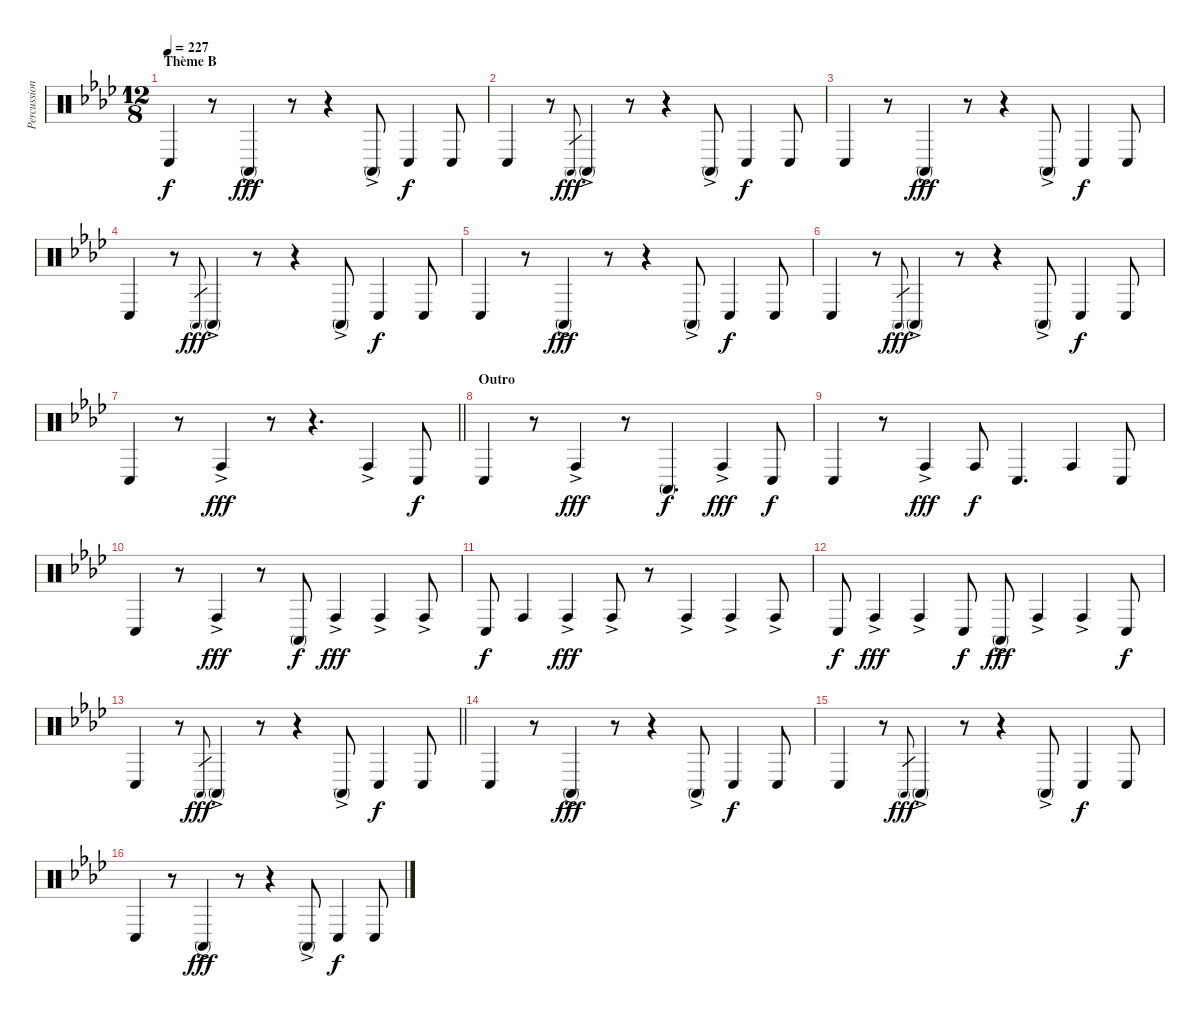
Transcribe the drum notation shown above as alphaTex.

\track ("Percussions" "Percussion") {instrument percussion}
\staff {score}
\articulation defaults
\ts (12 8)
\section ("" "Thème B")
\tempo 227
\clef neutral
\ks fminor "Conga low (hit)".4{dy f volume 13 balance 8}
r.8 "Conga high (mute)"{ac}.4{dy fff} r.8 r.4 "Conga high (mute)"{ac}.8 "Conga low (hit)".4{dy f} "Conga low (hit)".8 |
"Conga low (hit)".4 r.8 "Conga high (mute)".8{gr dy fff} "Conga high (mute)"{ac}.4 r.8 r.4 "Conga high (mute)"{ac}.8 "Conga low (hit)".4{dy f} "Conga low (hit)".8 |
"Conga low (hit)".4 r.8 "Conga high (mute)"{ac}.4{dy fff} r.8 r.4 "Conga high (mute)"{ac}.8 "Conga low (hit)".4{dy f} "Conga low (hit)".8 |
"Conga low (hit)".4 r.8 "Conga high (mute)".8{gr dy fff} "Conga high (mute)"{ac}.4 r.8 r.4 "Conga high (mute)"{ac}.8 "Conga low (hit)".4{dy f} "Conga low (hit)".8 |
"Conga low (hit)".4 r.8 "Conga high (mute)"{ac}.4{dy fff} r.8 r.4 "Conga high (mute)"{ac}.8 "Conga low (hit)".4{dy f} "Conga low (hit)".8 |
"Conga low (hit)".4 r.8 "Conga high (mute)".8{gr dy fff} "Conga high (mute)"{ac}.4 r.8 r.4 "Conga high (mute)"{ac}.8 "Conga low (hit)".4{dy f} "Conga low (hit)".8 |
\barLineRight lightlight "Conga low (hit)".4
r.8 "Conga high (hit)"{ac}.4{dy fff} r.8 r.4{d} "Conga high (hit)"{ac}.4 "Conga low (hit)".8{dy f} |
\section ("" "Outro")
"Conga low (hit)".4{volume 11 balance 8} r.8 "Conga high (hit)"{ac}.4{dy fff} r.8 "Conga high (mute)".4{d dy f} "Conga high (hit)"{ac}.4{dy fff} "Conga low (hit)".8{dy f} |
"Conga low (hit)".4 r.8 "Conga high (hit)"{ac}.4{dy fff} "Conga high (hit)".8{dy f} "Conga low (hit)".4{d} "Conga high (hit)".4 "Conga low (hit)".8 |
"Conga low (hit)".4 r.8 "Conga high (hit)"{ac}.4{dy fff} r.8 "Conga high (mute)".8{dy f} "Conga high (hit)"{ac}.4{dy fff} "Conga high (hit)"{ac}.4 "Conga high (hit)"{ac}.8 |
"Conga low (hit)".8{dy f} "Conga high (hit)".4 "Conga high (hit)"{ac}.4{dy fff} "Conga high (hit)"{ac}.8 r.8 "Conga high (hit)"{ac}.4 "Conga high (hit)"{ac}.4 "Conga high (hit)"{ac}.8 |
"Conga low (hit)".8{dy f} "Conga high (hit)"{ac}.4{dy fff} "Conga high (hit)"{ac}.4 "Conga low (hit)".8{dy f} "Conga high (mute)"{ac}.8{dy fff} "Conga high (hit)"{ac}.4 "Conga high (hit)"{ac}.4 "Conga low (hit)".8{dy f} |
\barLineRight lightlight "Conga low (hit)".4
r.8 "Conga high (mute)".8{gr dy fff} "Conga high (mute)"{ac}.4 r.8 r.4 "Conga high (mute)"{ac}.8 "Conga low (hit)".4{dy f} "Conga low (hit)".8 |
"Conga low (hit)".4{volume 6 balance 8} r.8 "Conga high (mute)"{ac}.4{dy fff} r.8 r.4 "Conga high (mute)"{ac}.8 "Conga low (hit)".4{dy f} "Conga low (hit)".8 |
"Conga low (hit)".4 r.8 "Conga high (mute)".8{gr dy fff} "Conga high (mute)"{ac}.4 r.8 r.4 "Conga high (mute)"{ac}.8 "Conga low (hit)".4{dy f} "Conga low (hit)".8 |
"Conga low (hit)".4 r.8 "Conga high (mute)"{ac}.4{dy fff} r.8 r.4 "Conga high (mute)"{ac}.8 "Conga low (hit)".4{dy f} "Conga low (hit)".8
